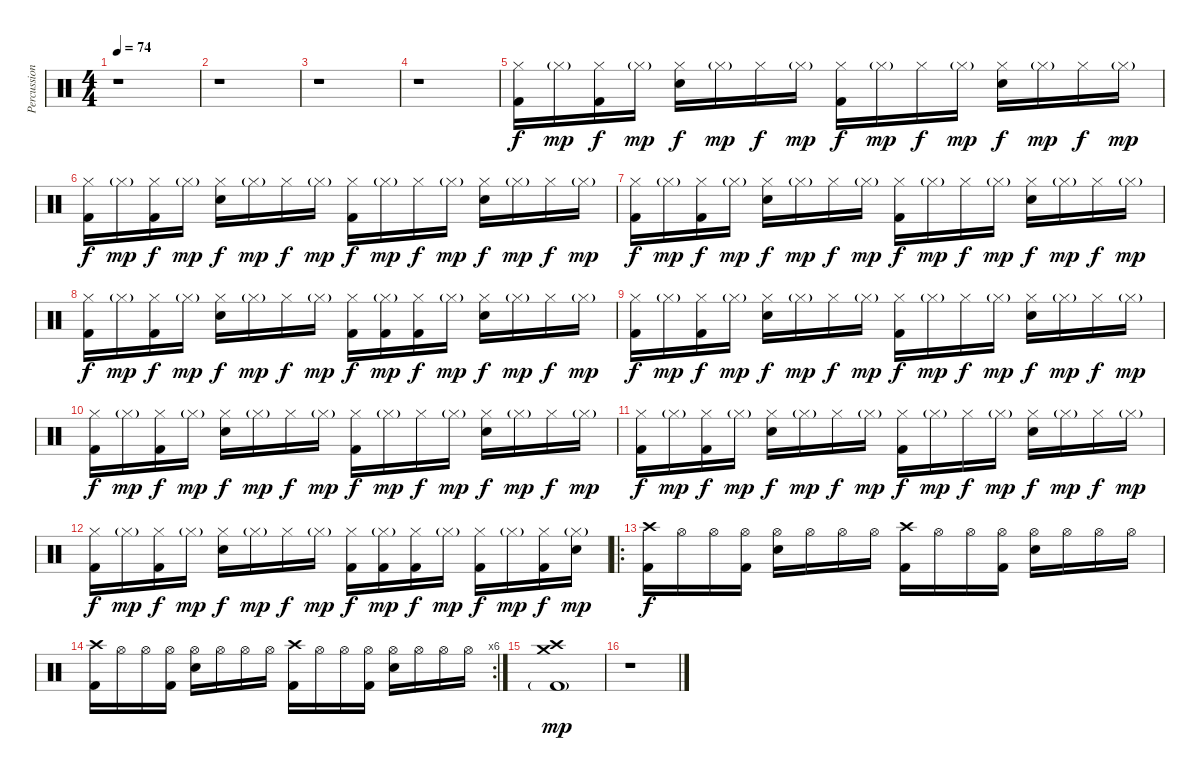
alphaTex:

\track ("Percussions" "Percussion") {instrument percussion}
\staff {score}
\articulation defaults
\ts (4 4)
\tempo 74
\clef neutral
\ks c
r.1{dy f} |
r.1 |
r.1 |
r.1 |
("Hi-Hat (closed)" "Kick (hit) 2").16 "Hi-Hat (closed)"{g}.16{dy mp} ("Hi-Hat (closed)" "Kick (hit) 2").16{dy f} "Hi-Hat (closed)"{g}.16{dy mp} ("Hi-Hat (closed)" "Snare (hit) 2").16{dy f} "Hi-Hat (closed)"{g}.16{dy mp} "Hi-Hat (closed)".16{dy f} "Hi-Hat (closed)"{g}.16{dy mp} ("Hi-Hat (closed)" "Kick (hit) 2").16{dy f} "Hi-Hat (closed)"{g}.16{dy mp} "Hi-Hat (closed)".16{dy f} "Hi-Hat (closed)"{g}.16{dy mp} ("Hi-Hat (closed)" "Snare (hit) 2").16{dy f} "Hi-Hat (closed)"{g}.16{dy mp} "Hi-Hat (closed)".16{dy f} "Hi-Hat (closed)"{g}.16{dy mp} |
("Hi-Hat (closed)" "Kick (hit) 2").16{dy f} "Hi-Hat (closed)"{g}.16{dy mp} ("Hi-Hat (closed)" "Kick (hit) 2").16{dy f} "Hi-Hat (closed)"{g}.16{dy mp} ("Hi-Hat (closed)" "Snare (hit) 2").16{dy f} "Hi-Hat (closed)"{g}.16{dy mp} "Hi-Hat (closed)".16{dy f} "Hi-Hat (closed)"{g}.16{dy mp} ("Hi-Hat (closed)" "Kick (hit) 2").16{dy f} "Hi-Hat (closed)"{g}.16{dy mp} "Hi-Hat (closed)".16{dy f} "Hi-Hat (closed)"{g}.16{dy mp} ("Hi-Hat (closed)" "Snare (hit) 2").16{dy f} "Hi-Hat (closed)"{g}.16{dy mp} "Hi-Hat (closed)".16{dy f} "Hi-Hat (closed)"{g}.16{dy mp} |
("Hi-Hat (closed)" "Kick (hit) 2").16{dy f} "Hi-Hat (closed)"{g}.16{dy mp} ("Hi-Hat (closed)" "Kick (hit) 2").16{dy f} "Hi-Hat (closed)"{g}.16{dy mp} ("Hi-Hat (closed)" "Snare (hit) 2").16{dy f} "Hi-Hat (closed)"{g}.16{dy mp} "Hi-Hat (closed)".16{dy f} "Hi-Hat (closed)"{g}.16{dy mp} ("Hi-Hat (closed)" "Kick (hit) 2").16{dy f} "Hi-Hat (closed)"{g}.16{dy mp} "Hi-Hat (closed)".16{dy f} "Hi-Hat (closed)"{g}.16{dy mp} ("Hi-Hat (closed)" "Snare (hit) 2").16{dy f} "Hi-Hat (closed)"{g}.16{dy mp} "Hi-Hat (closed)".16{dy f} "Hi-Hat (closed)"{g}.16{dy mp} |
("Hi-Hat (closed)" "Kick (hit) 2").16{dy f} "Hi-Hat (closed)"{g}.16{dy mp} ("Hi-Hat (closed)" "Kick (hit) 2").16{dy f} "Hi-Hat (closed)"{g}.16{dy mp} ("Hi-Hat (closed)" "Snare (hit) 2").16{dy f} "Hi-Hat (closed)"{g}.16{dy mp} "Hi-Hat (closed)".16{dy f} "Hi-Hat (closed)"{g}.16{dy mp} ("Hi-Hat (closed)" "Kick (hit) 2").16{dy f} ("Hi-Hat (closed)"{g} "Kick (hit) 2").16{dy mp} ("Hi-Hat (closed)" "Kick (hit) 2").16{dy f} "Hi-Hat (closed)"{g}.16{dy mp} ("Hi-Hat (closed)" "Snare (hit) 2").16{dy f} "Hi-Hat (closed)"{g}.16{dy mp} "Hi-Hat (closed)".16{dy f} "Hi-Hat (closed)"{g}.16{dy mp} |
("Hi-Hat (closed)" "Kick (hit) 2").16{dy f} "Hi-Hat (closed)"{g}.16{dy mp} ("Hi-Hat (closed)" "Kick (hit) 2").16{dy f} "Hi-Hat (closed)"{g}.16{dy mp} ("Hi-Hat (closed)" "Snare (hit) 2").16{dy f} "Hi-Hat (closed)"{g}.16{dy mp} "Hi-Hat (closed)".16{dy f} "Hi-Hat (closed)"{g}.16{dy mp} ("Hi-Hat (closed)" "Kick (hit) 2").16{dy f} "Hi-Hat (closed)"{g}.16{dy mp} "Hi-Hat (closed)".16{dy f} "Hi-Hat (closed)"{g}.16{dy mp} ("Hi-Hat (closed)" "Snare (hit) 2").16{dy f} "Hi-Hat (closed)"{g}.16{dy mp} "Hi-Hat (closed)".16{dy f} "Hi-Hat (closed)"{g}.16{dy mp} |
("Hi-Hat (closed)" "Kick (hit) 2").16{dy f} "Hi-Hat (closed)"{g}.16{dy mp} ("Hi-Hat (closed)" "Kick (hit) 2").16{dy f} "Hi-Hat (closed)"{g}.16{dy mp} ("Hi-Hat (closed)" "Snare (hit) 2").16{dy f} "Hi-Hat (closed)"{g}.16{dy mp} "Hi-Hat (closed)".16{dy f} "Hi-Hat (closed)"{g}.16{dy mp} ("Hi-Hat (closed)" "Kick (hit) 2").16{dy f} "Hi-Hat (closed)"{g}.16{dy mp} "Hi-Hat (closed)".16{dy f} "Hi-Hat (closed)"{g}.16{dy mp} ("Hi-Hat (closed)" "Snare (hit) 2").16{dy f} "Hi-Hat (closed)"{g}.16{dy mp} "Hi-Hat (closed)".16{dy f} "Hi-Hat (closed)"{g}.16{dy mp} |
("Hi-Hat (closed)" "Kick (hit) 2").16{dy f} "Hi-Hat (closed)"{g}.16{dy mp} ("Hi-Hat (closed)" "Kick (hit) 2").16{dy f} "Hi-Hat (closed)"{g}.16{dy mp} ("Hi-Hat (closed)" "Snare (hit) 2").16{dy f} "Hi-Hat (closed)"{g}.16{dy mp} "Hi-Hat (closed)".16{dy f} "Hi-Hat (closed)"{g}.16{dy mp} ("Hi-Hat (closed)" "Kick (hit) 2").16{dy f} "Hi-Hat (closed)"{g}.16{dy mp} "Hi-Hat (closed)".16{dy f} "Hi-Hat (closed)"{g}.16{dy mp} ("Hi-Hat (closed)" "Snare (hit) 2").16{dy f} "Hi-Hat (closed)"{g}.16{dy mp} "Hi-Hat (closed)".16{dy f} "Hi-Hat (closed)"{g}.16{dy mp} |
("Hi-Hat (closed)" "Kick (hit) 2").16{dy f} "Hi-Hat (closed)"{g}.16{dy mp} ("Hi-Hat (closed)" "Kick (hit) 2").16{dy f} "Hi-Hat (closed)"{g}.16{dy mp} ("Hi-Hat (closed)" "Snare (hit) 2").16{dy f} "Hi-Hat (closed)"{g}.16{dy mp} "Hi-Hat (closed)".16{dy f} "Hi-Hat (closed)"{g}.16{dy mp} ("Hi-Hat (closed)" "Kick (hit) 2").16{dy f} ("Hi-Hat (closed)"{g} "Kick (hit) 2").16{dy mp} ("Hi-Hat (closed)" "Kick (hit) 2").16{dy f} "Hi-Hat (closed)"{g}.16{dy mp} ("Hi-Hat (closed)" "Kick (hit) 2").16{dy f} "Hi-Hat (closed)"{g}.16{dy mp} ("Hi-Hat (closed)" "Kick (hit) 2").16{dy f} ("Hi-Hat (closed)"{g} "Snare (hit) 2").16{dy mp} |
\ro
("Crash high (hit)" "Kick (hit) 2").16{dy f} "Hi-Hat (open)".16 "Hi-Hat (open)".16 ("Hi-Hat (open)" "Kick (hit) 2").16 ("Hi-Hat (open)" "Snare (hit) 2").16 "Hi-Hat (open)".16 "Hi-Hat (open)".16 "Hi-Hat (open)".16 ("Crash high (hit)" "Kick (hit) 2").16 "Hi-Hat (open)".16 "Hi-Hat (open)".16 ("Hi-Hat (open)" "Kick (hit) 2").16 ("Hi-Hat (open)" "Snare (hit) 2").16 "Hi-Hat (open)".16 "Hi-Hat (open)".16 "Hi-Hat (open)".16 |
\rc 6
("Crash high (hit)" "Kick (hit) 2").16 "Hi-Hat (open)".16 "Hi-Hat (open)".16 ("Hi-Hat (open)" "Kick (hit) 2").16 ("Hi-Hat (open)" "Snare (hit) 2").16 "Hi-Hat (open)".16 "Hi-Hat (open)".16 "Hi-Hat (open)".16 ("Crash high (hit)" "Kick (hit) 2").16 "Hi-Hat (open)".16 "Hi-Hat (open)".16 ("Hi-Hat (open)" "Kick (hit) 2").16 ("Hi-Hat (open)" "Snare (hit) 2").16 "Hi-Hat (open)".16 "Hi-Hat (open)".16 "Hi-Hat (open)".16 |
("Crash high (hit)" "Crash medium (hit)" "Kick (hit) 2"{g}).1{dy mp} |
r.1
